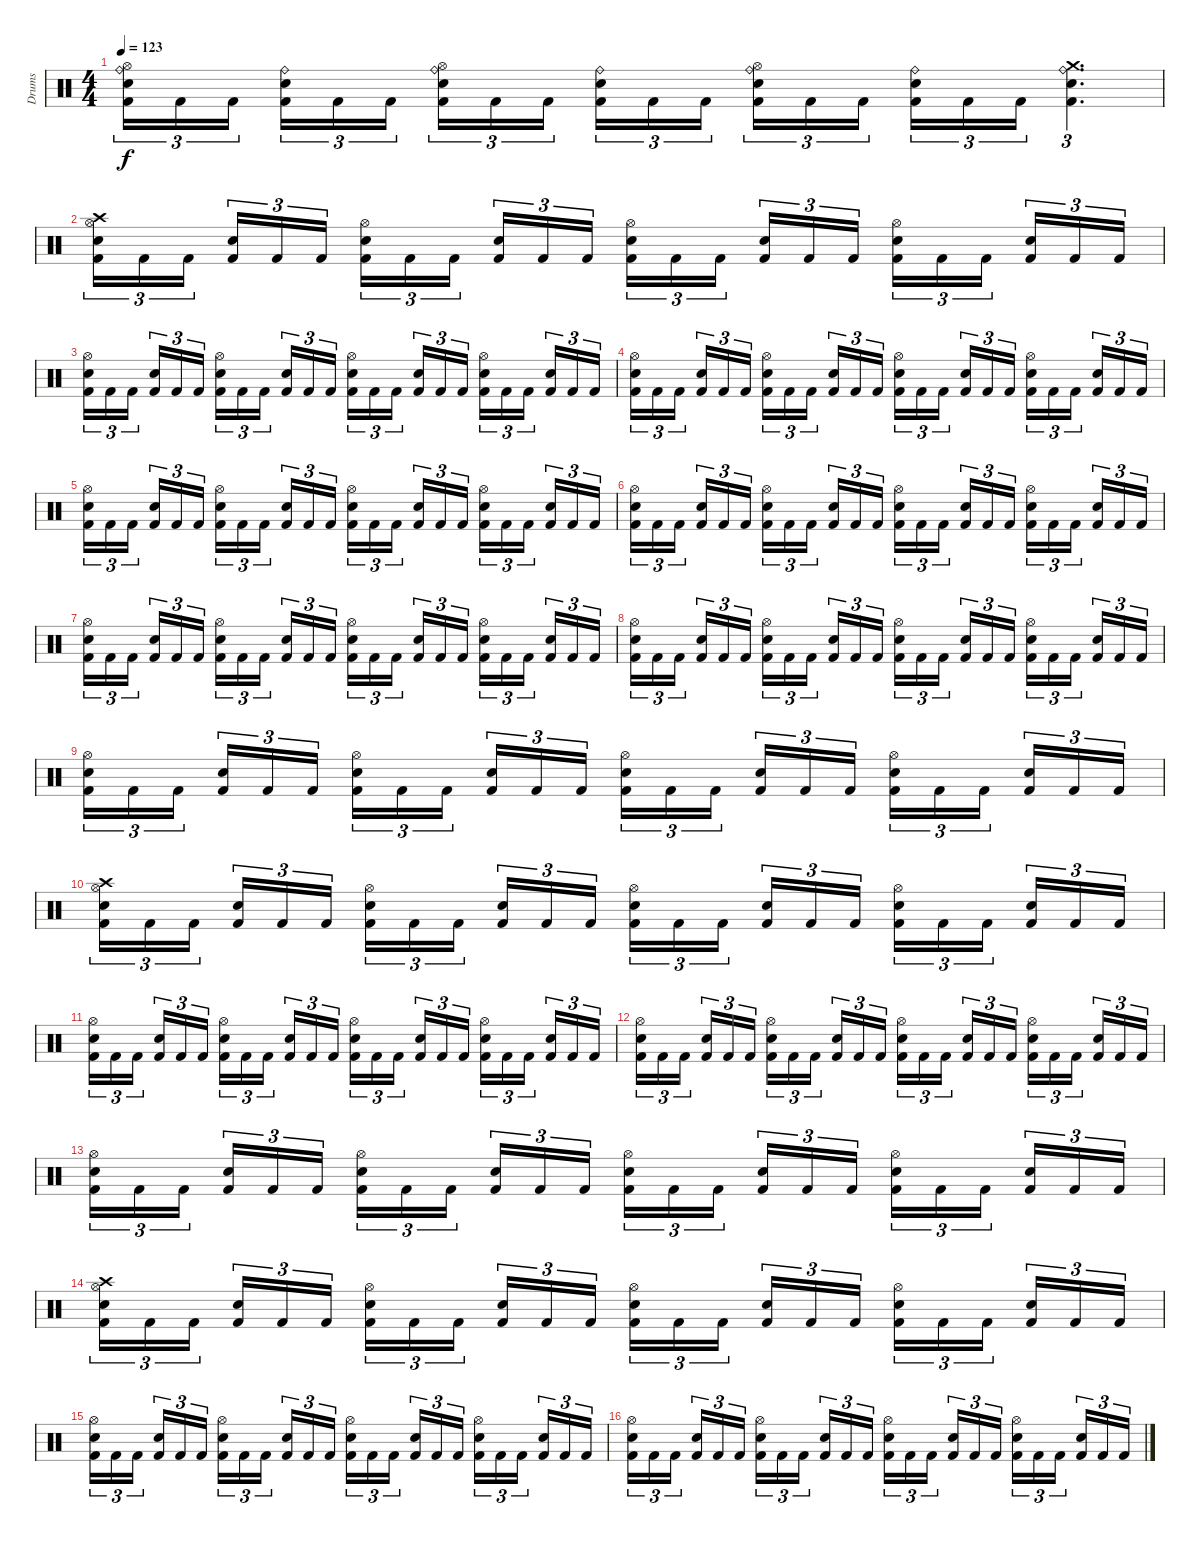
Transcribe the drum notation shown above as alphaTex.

\track ("Drums" "Drums") {instrument percussion}
\staff {score}
\articulation defaults
\ts (4 4)
\tempo 123
\clef neutral
\ks c
("Hi-Hat (open)" "Ride (bell)" "Snare (hit) 2" "Kick (hit) 2").16{tu (3 2) dy f} "Kick (hit) 2".16{tu (3 2)} "Kick (hit) 2".16{tu (3 2) beam splitsecondary} ("Ride (bell)" "Snare (hit) 2" "Kick (hit) 2").16{tu (3 2)} "Kick (hit) 2".16{tu (3 2)} "Kick (hit) 2".16{tu (3 2)} ("Hi-Hat (open)" "Ride (bell)" "Snare (hit) 2" "Kick (hit) 2").16{tu (3 2)} "Kick (hit) 2".16{tu (3 2)} "Kick (hit) 2".16{tu (3 2) beam splitsecondary} ("Ride (bell)" "Snare (hit) 2" "Kick (hit) 2").16{tu (3 2)} "Kick (hit) 2".16{tu (3 2)} "Kick (hit) 2".16{tu (3 2)} ("Hi-Hat (open)" "Ride (bell)" "Snare (hit) 2" "Kick (hit) 2").16{tu (3 2)} "Kick (hit) 2".16{tu (3 2)} "Kick (hit) 2".16{tu (3 2) beam splitsecondary} ("Ride (bell)" "Snare (hit) 2" "Kick (hit) 2").16{tu (3 2)} "Kick (hit) 2".16{tu (3 2)} "Kick (hit) 2".16{tu (3 2)} ("Crash medium (hit)" "Ride (bell)" "Snare (hit) 2" "Kick (hit) 2").4{d tu (3 2)} |
("Crash high (hit)" "Hi-Hat (open)" "Snare (hit) 2" "Kick (hit) 2").16{tu (3 2)} "Kick (hit) 2".16{tu (3 2)} "Kick (hit) 2".16{tu (3 2) beam splitsecondary} ("Snare (hit) 2" "Kick (hit) 2").16{tu (3 2)} "Kick (hit) 2".16{tu (3 2)} "Kick (hit) 2".16{tu (3 2)} ("Hi-Hat (open)" "Snare (hit) 2" "Kick (hit) 2").16{tu (3 2)} "Kick (hit) 2".16{tu (3 2)} "Kick (hit) 2".16{tu (3 2) beam splitsecondary} ("Snare (hit) 2" "Kick (hit) 2").16{tu (3 2)} "Kick (hit) 2".16{tu (3 2)} "Kick (hit) 2".16{tu (3 2)} ("Hi-Hat (open)" "Snare (hit) 2" "Kick (hit) 2").16{tu (3 2)} "Kick (hit) 2".16{tu (3 2)} "Kick (hit) 2".16{tu (3 2) beam splitsecondary} ("Snare (hit) 2" "Kick (hit) 2").16{tu (3 2)} "Kick (hit) 2".16{tu (3 2)} "Kick (hit) 2".16{tu (3 2)} ("Hi-Hat (open)" "Snare (hit) 2" "Kick (hit) 2").16{tu (3 2)} "Kick (hit) 2".16{tu (3 2)} "Kick (hit) 2".16{tu (3 2) beam splitsecondary} ("Snare (hit) 2" "Kick (hit) 2").16{tu (3 2)} "Kick (hit) 2".16{tu (3 2)} "Kick (hit) 2".16{tu (3 2)} |
("Hi-Hat (open)" "Snare (hit) 2" "Kick (hit) 2").16{tu (3 2)} "Kick (hit) 2".16{tu (3 2)} "Kick (hit) 2".16{tu (3 2) beam splitsecondary} ("Snare (hit) 2" "Kick (hit) 2").16{tu (3 2)} "Kick (hit) 2".16{tu (3 2)} "Kick (hit) 2".16{tu (3 2)} ("Hi-Hat (open)" "Snare (hit) 2" "Kick (hit) 2").16{tu (3 2)} "Kick (hit) 2".16{tu (3 2)} "Kick (hit) 2".16{tu (3 2) beam splitsecondary} ("Snare (hit) 2" "Kick (hit) 2").16{tu (3 2)} "Kick (hit) 2".16{tu (3 2)} "Kick (hit) 2".16{tu (3 2)} ("Hi-Hat (open)" "Snare (hit) 2" "Kick (hit) 2").16{tu (3 2)} "Kick (hit) 2".16{tu (3 2)} "Kick (hit) 2".16{tu (3 2) beam splitsecondary} ("Snare (hit) 2" "Kick (hit) 2").16{tu (3 2)} "Kick (hit) 2".16{tu (3 2)} "Kick (hit) 2".16{tu (3 2)} ("Hi-Hat (open)" "Snare (hit) 2" "Kick (hit) 2").16{tu (3 2)} "Kick (hit) 2".16{tu (3 2)} "Kick (hit) 2".16{tu (3 2) beam splitsecondary} ("Snare (hit) 2" "Kick (hit) 2").16{tu (3 2)} "Kick (hit) 2".16{tu (3 2)} "Kick (hit) 2".16{tu (3 2)} |
("Hi-Hat (open)" "Snare (hit) 2" "Kick (hit) 2").16{tu (3 2)} "Kick (hit) 2".16{tu (3 2)} "Kick (hit) 2".16{tu (3 2) beam splitsecondary} ("Snare (hit) 2" "Kick (hit) 2").16{tu (3 2)} "Kick (hit) 2".16{tu (3 2)} "Kick (hit) 2".16{tu (3 2)} ("Hi-Hat (open)" "Snare (hit) 2" "Kick (hit) 2").16{tu (3 2)} "Kick (hit) 2".16{tu (3 2)} "Kick (hit) 2".16{tu (3 2) beam splitsecondary} ("Snare (hit) 2" "Kick (hit) 2").16{tu (3 2)} "Kick (hit) 2".16{tu (3 2)} "Kick (hit) 2".16{tu (3 2)} ("Hi-Hat (open)" "Snare (hit) 2" "Kick (hit) 2").16{tu (3 2)} "Kick (hit) 2".16{tu (3 2)} "Kick (hit) 2".16{tu (3 2) beam splitsecondary} ("Snare (hit) 2" "Kick (hit) 2").16{tu (3 2)} "Kick (hit) 2".16{tu (3 2)} "Kick (hit) 2".16{tu (3 2)} ("Hi-Hat (open)" "Snare (hit) 2" "Kick (hit) 2").16{tu (3 2)} "Kick (hit) 2".16{tu (3 2)} "Kick (hit) 2".16{tu (3 2) beam splitsecondary} ("Snare (hit) 2" "Kick (hit) 2").16{tu (3 2)} "Kick (hit) 2".16{tu (3 2)} "Kick (hit) 2".16{tu (3 2)} |
("Hi-Hat (open)" "Snare (hit) 2" "Kick (hit) 2").16{tu (3 2)} "Kick (hit) 2".16{tu (3 2)} "Kick (hit) 2".16{tu (3 2) beam splitsecondary} ("Snare (hit) 2" "Kick (hit) 2").16{tu (3 2)} "Kick (hit) 2".16{tu (3 2)} "Kick (hit) 2".16{tu (3 2)} ("Hi-Hat (open)" "Snare (hit) 2" "Kick (hit) 2").16{tu (3 2)} "Kick (hit) 2".16{tu (3 2)} "Kick (hit) 2".16{tu (3 2) beam splitsecondary} ("Snare (hit) 2" "Kick (hit) 2").16{tu (3 2)} "Kick (hit) 2".16{tu (3 2)} "Kick (hit) 2".16{tu (3 2)} ("Hi-Hat (open)" "Snare (hit) 2" "Kick (hit) 2").16{tu (3 2)} "Kick (hit) 2".16{tu (3 2)} "Kick (hit) 2".16{tu (3 2) beam splitsecondary} ("Snare (hit) 2" "Kick (hit) 2").16{tu (3 2)} "Kick (hit) 2".16{tu (3 2)} "Kick (hit) 2".16{tu (3 2)} ("Hi-Hat (open)" "Snare (hit) 2" "Kick (hit) 2").16{tu (3 2)} "Kick (hit) 2".16{tu (3 2)} "Kick (hit) 2".16{tu (3 2) beam splitsecondary} ("Snare (hit) 2" "Kick (hit) 2").16{tu (3 2)} "Kick (hit) 2".16{tu (3 2)} "Kick (hit) 2".16{tu (3 2)} |
("Hi-Hat (open)" "Snare (hit) 2" "Kick (hit) 2").16{tu (3 2)} "Kick (hit) 2".16{tu (3 2)} "Kick (hit) 2".16{tu (3 2) beam splitsecondary} ("Snare (hit) 2" "Kick (hit) 2").16{tu (3 2)} "Kick (hit) 2".16{tu (3 2)} "Kick (hit) 2".16{tu (3 2)} ("Hi-Hat (open)" "Snare (hit) 2" "Kick (hit) 2").16{tu (3 2)} "Kick (hit) 2".16{tu (3 2)} "Kick (hit) 2".16{tu (3 2) beam splitsecondary} ("Snare (hit) 2" "Kick (hit) 2").16{tu (3 2)} "Kick (hit) 2".16{tu (3 2)} "Kick (hit) 2".16{tu (3 2)} ("Hi-Hat (open)" "Snare (hit) 2" "Kick (hit) 2").16{tu (3 2)} "Kick (hit) 2".16{tu (3 2)} "Kick (hit) 2".16{tu (3 2) beam splitsecondary} ("Snare (hit) 2" "Kick (hit) 2").16{tu (3 2)} "Kick (hit) 2".16{tu (3 2)} "Kick (hit) 2".16{tu (3 2)} ("Hi-Hat (open)" "Snare (hit) 2" "Kick (hit) 2").16{tu (3 2)} "Kick (hit) 2".16{tu (3 2)} "Kick (hit) 2".16{tu (3 2) beam splitsecondary} ("Snare (hit) 2" "Kick (hit) 2").16{tu (3 2)} "Kick (hit) 2".16{tu (3 2)} "Kick (hit) 2".16{tu (3 2)} |
("Hi-Hat (open)" "Snare (hit) 2" "Kick (hit) 2").16{tu (3 2)} "Kick (hit) 2".16{tu (3 2)} "Kick (hit) 2".16{tu (3 2) beam splitsecondary} ("Snare (hit) 2" "Kick (hit) 2").16{tu (3 2)} "Kick (hit) 2".16{tu (3 2)} "Kick (hit) 2".16{tu (3 2)} ("Hi-Hat (open)" "Snare (hit) 2" "Kick (hit) 2").16{tu (3 2)} "Kick (hit) 2".16{tu (3 2)} "Kick (hit) 2".16{tu (3 2) beam splitsecondary} ("Snare (hit) 2" "Kick (hit) 2").16{tu (3 2)} "Kick (hit) 2".16{tu (3 2)} "Kick (hit) 2".16{tu (3 2)} ("Hi-Hat (open)" "Snare (hit) 2" "Kick (hit) 2").16{tu (3 2)} "Kick (hit) 2".16{tu (3 2)} "Kick (hit) 2".16{tu (3 2) beam splitsecondary} ("Snare (hit) 2" "Kick (hit) 2").16{tu (3 2)} "Kick (hit) 2".16{tu (3 2)} "Kick (hit) 2".16{tu (3 2)} ("Hi-Hat (open)" "Snare (hit) 2" "Kick (hit) 2").16{tu (3 2)} "Kick (hit) 2".16{tu (3 2)} "Kick (hit) 2".16{tu (3 2) beam splitsecondary} ("Snare (hit) 2" "Kick (hit) 2").16{tu (3 2)} "Kick (hit) 2".16{tu (3 2)} "Kick (hit) 2".16{tu (3 2)} |
("Hi-Hat (open)" "Snare (hit) 2" "Kick (hit) 2").16{tu (3 2)} "Kick (hit) 2".16{tu (3 2)} "Kick (hit) 2".16{tu (3 2) beam splitsecondary} ("Snare (hit) 2" "Kick (hit) 2").16{tu (3 2)} "Kick (hit) 2".16{tu (3 2)} "Kick (hit) 2".16{tu (3 2)} ("Hi-Hat (open)" "Snare (hit) 2" "Kick (hit) 2").16{tu (3 2)} "Kick (hit) 2".16{tu (3 2)} "Kick (hit) 2".16{tu (3 2) beam splitsecondary} ("Snare (hit) 2" "Kick (hit) 2").16{tu (3 2)} "Kick (hit) 2".16{tu (3 2)} "Kick (hit) 2".16{tu (3 2)} ("Hi-Hat (open)" "Snare (hit) 2" "Kick (hit) 2").16{tu (3 2)} "Kick (hit) 2".16{tu (3 2)} "Kick (hit) 2".16{tu (3 2) beam splitsecondary} ("Snare (hit) 2" "Kick (hit) 2").16{tu (3 2)} "Kick (hit) 2".16{tu (3 2)} "Kick (hit) 2".16{tu (3 2)} ("Hi-Hat (open)" "Snare (hit) 2" "Kick (hit) 2").16{tu (3 2)} "Kick (hit) 2".16{tu (3 2)} "Kick (hit) 2".16{tu (3 2) beam splitsecondary} ("Snare (hit) 2" "Kick (hit) 2").16{tu (3 2)} "Kick (hit) 2".16{tu (3 2)} "Kick (hit) 2".16{tu (3 2)} |
("Hi-Hat (open)" "Snare (hit) 2" "Kick (hit) 2").16{tu (3 2)} "Kick (hit) 2".16{tu (3 2)} "Kick (hit) 2".16{tu (3 2) beam splitsecondary} ("Snare (hit) 2" "Kick (hit) 2").16{tu (3 2)} "Kick (hit) 2".16{tu (3 2)} "Kick (hit) 2".16{tu (3 2)} ("Hi-Hat (open)" "Snare (hit) 2" "Kick (hit) 2").16{tu (3 2)} "Kick (hit) 2".16{tu (3 2)} "Kick (hit) 2".16{tu (3 2) beam splitsecondary} ("Snare (hit) 2" "Kick (hit) 2").16{tu (3 2)} "Kick (hit) 2".16{tu (3 2)} "Kick (hit) 2".16{tu (3 2)} ("Hi-Hat (open)" "Snare (hit) 2" "Kick (hit) 2").16{tu (3 2)} "Kick (hit) 2".16{tu (3 2)} "Kick (hit) 2".16{tu (3 2) beam splitsecondary} ("Snare (hit) 2" "Kick (hit) 2").16{tu (3 2)} "Kick (hit) 2".16{tu (3 2)} "Kick (hit) 2".16{tu (3 2)} ("Hi-Hat (open)" "Snare (hit) 2" "Kick (hit) 2").16{tu (3 2)} "Kick (hit) 2".16{tu (3 2)} "Kick (hit) 2".16{tu (3 2) beam splitsecondary} ("Snare (hit) 2" "Kick (hit) 2").16{tu (3 2)} "Kick (hit) 2".16{tu (3 2)} "Kick (hit) 2".16{tu (3 2)} |
("Crash high (hit)" "Hi-Hat (open)" "Snare (hit) 2" "Kick (hit) 2").16{tu (3 2)} "Kick (hit) 2".16{tu (3 2)} "Kick (hit) 2".16{tu (3 2) beam splitsecondary} ("Snare (hit) 2" "Kick (hit) 2").16{tu (3 2)} "Kick (hit) 2".16{tu (3 2)} "Kick (hit) 2".16{tu (3 2)} ("Hi-Hat (open)" "Snare (hit) 2" "Kick (hit) 2").16{tu (3 2)} "Kick (hit) 2".16{tu (3 2)} "Kick (hit) 2".16{tu (3 2) beam splitsecondary} ("Snare (hit) 2" "Kick (hit) 2").16{tu (3 2)} "Kick (hit) 2".16{tu (3 2)} "Kick (hit) 2".16{tu (3 2)} ("Hi-Hat (open)" "Snare (hit) 2" "Kick (hit) 2").16{tu (3 2)} "Kick (hit) 2".16{tu (3 2)} "Kick (hit) 2".16{tu (3 2) beam splitsecondary} ("Snare (hit) 2" "Kick (hit) 2").16{tu (3 2)} "Kick (hit) 2".16{tu (3 2)} "Kick (hit) 2".16{tu (3 2)} ("Hi-Hat (open)" "Snare (hit) 2" "Kick (hit) 2").16{tu (3 2)} "Kick (hit) 2".16{tu (3 2)} "Kick (hit) 2".16{tu (3 2) beam splitsecondary} ("Snare (hit) 2" "Kick (hit) 2").16{tu (3 2)} "Kick (hit) 2".16{tu (3 2)} "Kick (hit) 2".16{tu (3 2)} |
("Hi-Hat (open)" "Snare (hit) 2" "Kick (hit) 2").16{tu (3 2)} "Kick (hit) 2".16{tu (3 2)} "Kick (hit) 2".16{tu (3 2) beam splitsecondary} ("Snare (hit) 2" "Kick (hit) 2").16{tu (3 2)} "Kick (hit) 2".16{tu (3 2)} "Kick (hit) 2".16{tu (3 2)} ("Hi-Hat (open)" "Snare (hit) 2" "Kick (hit) 2").16{tu (3 2)} "Kick (hit) 2".16{tu (3 2)} "Kick (hit) 2".16{tu (3 2) beam splitsecondary} ("Snare (hit) 2" "Kick (hit) 2").16{tu (3 2)} "Kick (hit) 2".16{tu (3 2)} "Kick (hit) 2".16{tu (3 2)} ("Hi-Hat (open)" "Snare (hit) 2" "Kick (hit) 2").16{tu (3 2)} "Kick (hit) 2".16{tu (3 2)} "Kick (hit) 2".16{tu (3 2) beam splitsecondary} ("Snare (hit) 2" "Kick (hit) 2").16{tu (3 2)} "Kick (hit) 2".16{tu (3 2)} "Kick (hit) 2".16{tu (3 2)} ("Hi-Hat (open)" "Snare (hit) 2" "Kick (hit) 2").16{tu (3 2)} "Kick (hit) 2".16{tu (3 2)} "Kick (hit) 2".16{tu (3 2) beam splitsecondary} ("Snare (hit) 2" "Kick (hit) 2").16{tu (3 2)} "Kick (hit) 2".16{tu (3 2)} "Kick (hit) 2".16{tu (3 2)} |
("Hi-Hat (open)" "Snare (hit) 2" "Kick (hit) 2").16{tu (3 2)} "Kick (hit) 2".16{tu (3 2)} "Kick (hit) 2".16{tu (3 2) beam splitsecondary} ("Snare (hit) 2" "Kick (hit) 2").16{tu (3 2)} "Kick (hit) 2".16{tu (3 2)} "Kick (hit) 2".16{tu (3 2)} ("Hi-Hat (open)" "Snare (hit) 2" "Kick (hit) 2").16{tu (3 2)} "Kick (hit) 2".16{tu (3 2)} "Kick (hit) 2".16{tu (3 2) beam splitsecondary} ("Snare (hit) 2" "Kick (hit) 2").16{tu (3 2)} "Kick (hit) 2".16{tu (3 2)} "Kick (hit) 2".16{tu (3 2)} ("Hi-Hat (open)" "Snare (hit) 2" "Kick (hit) 2").16{tu (3 2)} "Kick (hit) 2".16{tu (3 2)} "Kick (hit) 2".16{tu (3 2) beam splitsecondary} ("Snare (hit) 2" "Kick (hit) 2").16{tu (3 2)} "Kick (hit) 2".16{tu (3 2)} "Kick (hit) 2".16{tu (3 2)} ("Hi-Hat (open)" "Snare (hit) 2" "Kick (hit) 2").16{tu (3 2)} "Kick (hit) 2".16{tu (3 2)} "Kick (hit) 2".16{tu (3 2) beam splitsecondary} ("Snare (hit) 2" "Kick (hit) 2").16{tu (3 2)} "Kick (hit) 2".16{tu (3 2)} "Kick (hit) 2".16{tu (3 2)} |
("Hi-Hat (open)" "Snare (hit) 2" "Kick (hit) 2").16{tu (3 2)} "Kick (hit) 2".16{tu (3 2)} "Kick (hit) 2".16{tu (3 2) beam splitsecondary} ("Snare (hit) 2" "Kick (hit) 2").16{tu (3 2)} "Kick (hit) 2".16{tu (3 2)} "Kick (hit) 2".16{tu (3 2)} ("Hi-Hat (open)" "Snare (hit) 2" "Kick (hit) 2").16{tu (3 2)} "Kick (hit) 2".16{tu (3 2)} "Kick (hit) 2".16{tu (3 2) beam splitsecondary} ("Snare (hit) 2" "Kick (hit) 2").16{tu (3 2)} "Kick (hit) 2".16{tu (3 2)} "Kick (hit) 2".16{tu (3 2)} ("Hi-Hat (open)" "Snare (hit) 2" "Kick (hit) 2").16{tu (3 2)} "Kick (hit) 2".16{tu (3 2)} "Kick (hit) 2".16{tu (3 2) beam splitsecondary} ("Snare (hit) 2" "Kick (hit) 2").16{tu (3 2)} "Kick (hit) 2".16{tu (3 2)} "Kick (hit) 2".16{tu (3 2)} ("Hi-Hat (open)" "Snare (hit) 2" "Kick (hit) 2").16{tu (3 2)} "Kick (hit) 2".16{tu (3 2)} "Kick (hit) 2".16{tu (3 2) beam splitsecondary} ("Snare (hit) 2" "Kick (hit) 2").16{tu (3 2)} "Kick (hit) 2".16{tu (3 2)} "Kick (hit) 2".16{tu (3 2)} |
("Crash high (hit)" "Hi-Hat (open)" "Snare (hit) 2" "Kick (hit) 2").16{tu (3 2)} "Kick (hit) 2".16{tu (3 2)} "Kick (hit) 2".16{tu (3 2) beam splitsecondary} ("Snare (hit) 2" "Kick (hit) 2").16{tu (3 2)} "Kick (hit) 2".16{tu (3 2)} "Kick (hit) 2".16{tu (3 2)} ("Hi-Hat (open)" "Snare (hit) 2" "Kick (hit) 2").16{tu (3 2)} "Kick (hit) 2".16{tu (3 2)} "Kick (hit) 2".16{tu (3 2) beam splitsecondary} ("Snare (hit) 2" "Kick (hit) 2").16{tu (3 2)} "Kick (hit) 2".16{tu (3 2)} "Kick (hit) 2".16{tu (3 2)} ("Hi-Hat (open)" "Snare (hit) 2" "Kick (hit) 2").16{tu (3 2)} "Kick (hit) 2".16{tu (3 2)} "Kick (hit) 2".16{tu (3 2) beam splitsecondary} ("Snare (hit) 2" "Kick (hit) 2").16{tu (3 2)} "Kick (hit) 2".16{tu (3 2)} "Kick (hit) 2".16{tu (3 2)} ("Hi-Hat (open)" "Snare (hit) 2" "Kick (hit) 2").16{tu (3 2)} "Kick (hit) 2".16{tu (3 2)} "Kick (hit) 2".16{tu (3 2) beam splitsecondary} ("Snare (hit) 2" "Kick (hit) 2").16{tu (3 2)} "Kick (hit) 2".16{tu (3 2)} "Kick (hit) 2".16{tu (3 2)} |
("Hi-Hat (open)" "Snare (hit) 2" "Kick (hit) 2").16{tu (3 2)} "Kick (hit) 2".16{tu (3 2)} "Kick (hit) 2".16{tu (3 2) beam splitsecondary} ("Snare (hit) 2" "Kick (hit) 2").16{tu (3 2)} "Kick (hit) 2".16{tu (3 2)} "Kick (hit) 2".16{tu (3 2)} ("Hi-Hat (open)" "Snare (hit) 2" "Kick (hit) 2").16{tu (3 2)} "Kick (hit) 2".16{tu (3 2)} "Kick (hit) 2".16{tu (3 2) beam splitsecondary} ("Snare (hit) 2" "Kick (hit) 2").16{tu (3 2)} "Kick (hit) 2".16{tu (3 2)} "Kick (hit) 2".16{tu (3 2)} ("Hi-Hat (open)" "Snare (hit) 2" "Kick (hit) 2").16{tu (3 2)} "Kick (hit) 2".16{tu (3 2)} "Kick (hit) 2".16{tu (3 2) beam splitsecondary} ("Snare (hit) 2" "Kick (hit) 2").16{tu (3 2)} "Kick (hit) 2".16{tu (3 2)} "Kick (hit) 2".16{tu (3 2)} ("Hi-Hat (open)" "Snare (hit) 2" "Kick (hit) 2").16{tu (3 2)} "Kick (hit) 2".16{tu (3 2)} "Kick (hit) 2".16{tu (3 2) beam splitsecondary} ("Snare (hit) 2" "Kick (hit) 2").16{tu (3 2)} "Kick (hit) 2".16{tu (3 2)} "Kick (hit) 2".16{tu (3 2)} |
("Hi-Hat (open)" "Snare (hit) 2" "Kick (hit) 2").16{tu (3 2)} "Kick (hit) 2".16{tu (3 2)} "Kick (hit) 2".16{tu (3 2) beam splitsecondary} ("Snare (hit) 2" "Kick (hit) 2").16{tu (3 2)} "Kick (hit) 2".16{tu (3 2)} "Kick (hit) 2".16{tu (3 2)} ("Hi-Hat (open)" "Snare (hit) 2" "Kick (hit) 2").16{tu (3 2)} "Kick (hit) 2".16{tu (3 2)} "Kick (hit) 2".16{tu (3 2) beam splitsecondary} ("Snare (hit) 2" "Kick (hit) 2").16{tu (3 2)} "Kick (hit) 2".16{tu (3 2)} "Kick (hit) 2".16{tu (3 2)} ("Hi-Hat (open)" "Snare (hit) 2" "Kick (hit) 2").16{tu (3 2)} "Kick (hit) 2".16{tu (3 2)} "Kick (hit) 2".16{tu (3 2) beam splitsecondary} ("Snare (hit) 2" "Kick (hit) 2").16{tu (3 2)} "Kick (hit) 2".16{tu (3 2)} "Kick (hit) 2".16{tu (3 2)} ("Hi-Hat (open)" "Snare (hit) 2" "Kick (hit) 2").16{tu (3 2)} "Kick (hit) 2".16{tu (3 2)} "Kick (hit) 2".16{tu (3 2) beam splitsecondary} ("Snare (hit) 2" "Kick (hit) 2").16{tu (3 2)} "Kick (hit) 2".16{tu (3 2)} "Kick (hit) 2".16{tu (3 2)}
